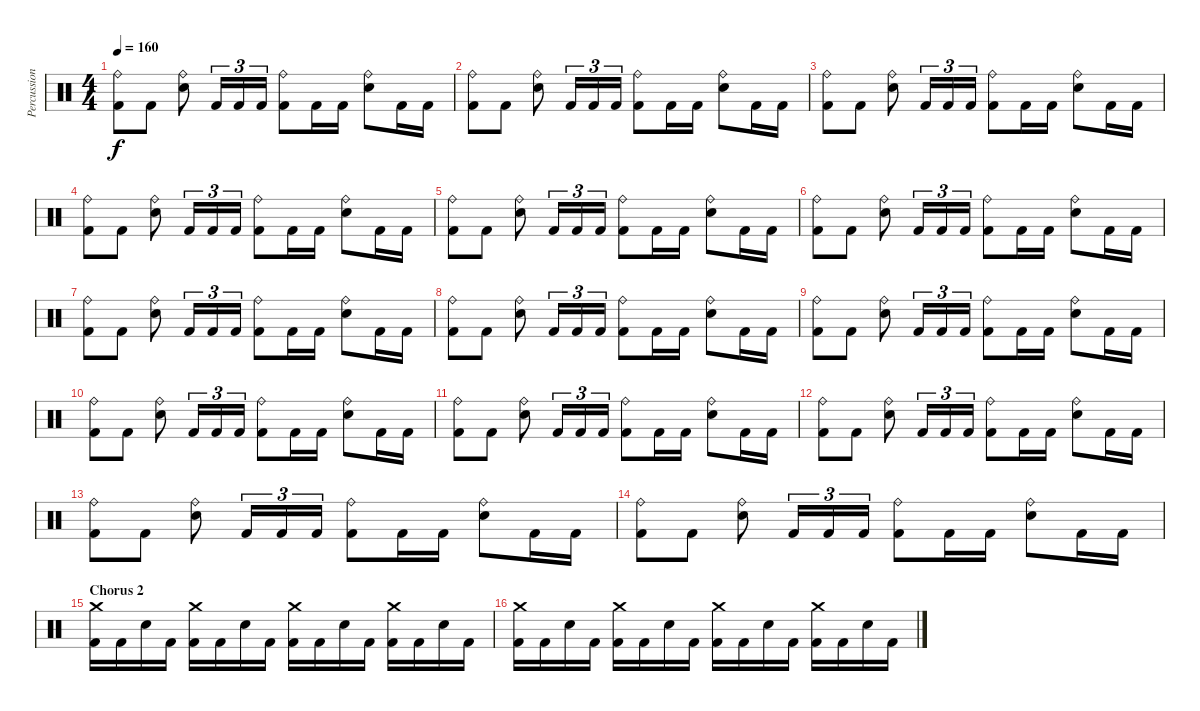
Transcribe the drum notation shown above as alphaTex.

\track ("Percussion" "Percussion") {instrument percussion}
\staff {score}
\articulation defaults
\ts (4 4)
\tempo 160
\clef neutral
\ks c
("Kick (hit) 2" "Ride (bell)").8{dy f} "Kick (hit) 2".8 ("Electric Snare (hit)" "Ride (bell)").8 "Kick (hit) 2".16{tu (3 2)} "Kick (hit) 2".16{tu (3 2)} "Kick (hit) 2".16{tu (3 2)} ("Kick (hit) 2" "Ride (bell)").8 "Kick (hit) 2".16 "Kick (hit) 2".16 ("Electric Snare (hit)" "Ride (bell)").8 "Kick (hit) 2".16 "Kick (hit) 2".16 |
("Kick (hit) 2" "Ride (bell)").8 "Kick (hit) 2".8 ("Electric Snare (hit)" "Ride (bell)").8 "Kick (hit) 2".16{tu (3 2)} "Kick (hit) 2".16{tu (3 2)} "Kick (hit) 2".16{tu (3 2)} ("Kick (hit) 2" "Ride (bell)").8 "Kick (hit) 2".16 "Kick (hit) 2".16 ("Electric Snare (hit)" "Ride (bell)").8 "Kick (hit) 2".16 "Kick (hit) 2".16 |
("Kick (hit) 2" "Ride (bell)").8 "Kick (hit) 2".8 ("Electric Snare (hit)" "Ride (bell)").8 "Kick (hit) 2".16{tu (3 2)} "Kick (hit) 2".16{tu (3 2)} "Kick (hit) 2".16{tu (3 2)} ("Kick (hit) 2" "Ride (bell)").8 "Kick (hit) 2".16 "Kick (hit) 2".16 ("Electric Snare (hit)" "Ride (bell)").8 "Kick (hit) 2".16 "Kick (hit) 2".16 |
("Kick (hit) 2" "Ride (bell)").8 "Kick (hit) 2".8 ("Electric Snare (hit)" "Ride (bell)").8 "Kick (hit) 2".16{tu (3 2)} "Kick (hit) 2".16{tu (3 2)} "Kick (hit) 2".16{tu (3 2)} ("Kick (hit) 2" "Ride (bell)").8 "Kick (hit) 2".16 "Kick (hit) 2".16 ("Electric Snare (hit)" "Ride (bell)").8 "Kick (hit) 2".16 "Kick (hit) 2".16 |
("Kick (hit) 2" "Ride (bell)").8 "Kick (hit) 2".8 ("Electric Snare (hit)" "Ride (bell)").8 "Kick (hit) 2".16{tu (3 2)} "Kick (hit) 2".16{tu (3 2)} "Kick (hit) 2".16{tu (3 2)} ("Kick (hit) 2" "Ride (bell)").8 "Kick (hit) 2".16 "Kick (hit) 2".16 ("Electric Snare (hit)" "Ride (bell)").8 "Kick (hit) 2".16 "Kick (hit) 2".16 |
("Kick (hit) 2" "Ride (bell)").8 "Kick (hit) 2".8 ("Electric Snare (hit)" "Ride (bell)").8 "Kick (hit) 2".16{tu (3 2)} "Kick (hit) 2".16{tu (3 2)} "Kick (hit) 2".16{tu (3 2)} ("Kick (hit) 2" "Ride (bell)").8 "Kick (hit) 2".16 "Kick (hit) 2".16 ("Electric Snare (hit)" "Ride (bell)").8 "Kick (hit) 2".16 "Kick (hit) 2".16 |
("Kick (hit) 2" "Ride (bell)").8 "Kick (hit) 2".8 ("Electric Snare (hit)" "Ride (bell)").8 "Kick (hit) 2".16{tu (3 2)} "Kick (hit) 2".16{tu (3 2)} "Kick (hit) 2".16{tu (3 2)} ("Kick (hit) 2" "Ride (bell)").8 "Kick (hit) 2".16 "Kick (hit) 2".16 ("Electric Snare (hit)" "Ride (bell)").8 "Kick (hit) 2".16 "Kick (hit) 2".16 |
("Kick (hit) 2" "Ride (bell)").8 "Kick (hit) 2".8 ("Electric Snare (hit)" "Ride (bell)").8 "Kick (hit) 2".16{tu (3 2)} "Kick (hit) 2".16{tu (3 2)} "Kick (hit) 2".16{tu (3 2)} ("Kick (hit) 2" "Ride (bell)").8 "Kick (hit) 2".16 "Kick (hit) 2".16 ("Electric Snare (hit)" "Ride (bell)").8 "Kick (hit) 2".16 "Kick (hit) 2".16 |
("Kick (hit) 2" "Ride (bell)").8 "Kick (hit) 2".8 ("Electric Snare (hit)" "Ride (bell)").8 "Kick (hit) 2".16{tu (3 2)} "Kick (hit) 2".16{tu (3 2)} "Kick (hit) 2".16{tu (3 2)} ("Kick (hit) 2" "Ride (bell)").8 "Kick (hit) 2".16 "Kick (hit) 2".16 ("Electric Snare (hit)" "Ride (bell)").8 "Kick (hit) 2".16 "Kick (hit) 2".16 |
("Kick (hit) 2" "Ride (bell)").8 "Kick (hit) 2".8 ("Electric Snare (hit)" "Ride (bell)").8 "Kick (hit) 2".16{tu (3 2)} "Kick (hit) 2".16{tu (3 2)} "Kick (hit) 2".16{tu (3 2)} ("Kick (hit) 2" "Ride (bell)").8 "Kick (hit) 2".16 "Kick (hit) 2".16 ("Electric Snare (hit)" "Ride (bell)").8 "Kick (hit) 2".16 "Kick (hit) 2".16 |
("Kick (hit) 2" "Ride (bell)").8 "Kick (hit) 2".8 ("Electric Snare (hit)" "Ride (bell)").8 "Kick (hit) 2".16{tu (3 2)} "Kick (hit) 2".16{tu (3 2)} "Kick (hit) 2".16{tu (3 2)} ("Kick (hit) 2" "Ride (bell)").8 "Kick (hit) 2".16 "Kick (hit) 2".16 ("Electric Snare (hit)" "Ride (bell)").8 "Kick (hit) 2".16 "Kick (hit) 2".16 |
("Kick (hit) 2" "Ride (bell)").8 "Kick (hit) 2".8 ("Electric Snare (hit)" "Ride (bell)").8 "Kick (hit) 2".16{tu (3 2)} "Kick (hit) 2".16{tu (3 2)} "Kick (hit) 2".16{tu (3 2)} ("Kick (hit) 2" "Ride (bell)").8 "Kick (hit) 2".16 "Kick (hit) 2".16 ("Electric Snare (hit)" "Ride (bell)").8 "Kick (hit) 2".16 "Kick (hit) 2".16 |
("Kick (hit) 2" "Ride (bell)").8 "Kick (hit) 2".8 ("Electric Snare (hit)" "Ride (bell)").8 "Kick (hit) 2".16{tu (3 2)} "Kick (hit) 2".16{tu (3 2)} "Kick (hit) 2".16{tu (3 2)} ("Kick (hit) 2" "Ride (bell)").8 "Kick (hit) 2".16 "Kick (hit) 2".16 ("Electric Snare (hit)" "Ride (bell)").8 "Kick (hit) 2".16 "Kick (hit) 2".16 |
("Kick (hit) 2" "Ride (bell)").8 "Kick (hit) 2".8 ("Electric Snare (hit)" "Ride (bell)").8 "Kick (hit) 2".16{tu (3 2)} "Kick (hit) 2".16{tu (3 2)} "Kick (hit) 2".16{tu (3 2)} ("Kick (hit) 2" "Ride (bell)").8 "Kick (hit) 2".16 "Kick (hit) 2".16 ("Electric Snare (hit)" "Ride (bell)").8 "Kick (hit) 2".16 "Kick (hit) 2".16 |
\section ("" "Chorus 2")
("Kick (hit) 2" "Crash medium (hit)").16 "Kick (hit) 2".16 "Electric Snare (hit)".16 "Kick (hit) 2".16 ("Kick (hit) 2" "Crash medium (hit)").16 "Kick (hit) 2".16 "Electric Snare (hit)".16 "Kick (hit) 2".16 ("Kick (hit) 2" "Crash medium (hit)").16 "Kick (hit) 2".16 "Electric Snare (hit)".16 "Kick (hit) 2".16 ("Kick (hit) 2" "Crash medium (hit)").16 "Kick (hit) 2".16 "Electric Snare (hit)".16 "Kick (hit) 2".16 |
("Kick (hit) 2" "Crash medium (hit)").16 "Kick (hit) 2".16 "Electric Snare (hit)".16 "Kick (hit) 2".16 ("Kick (hit) 2" "Crash medium (hit)").16 "Kick (hit) 2".16 "Electric Snare (hit)".16 "Kick (hit) 2".16 ("Kick (hit) 2" "Crash medium (hit)").16 "Kick (hit) 2".16 "Electric Snare (hit)".16 "Kick (hit) 2".16 ("Kick (hit) 2" "Crash medium (hit)").16 "Kick (hit) 2".16 "Electric Snare (hit)".16 "Kick (hit) 2".16
